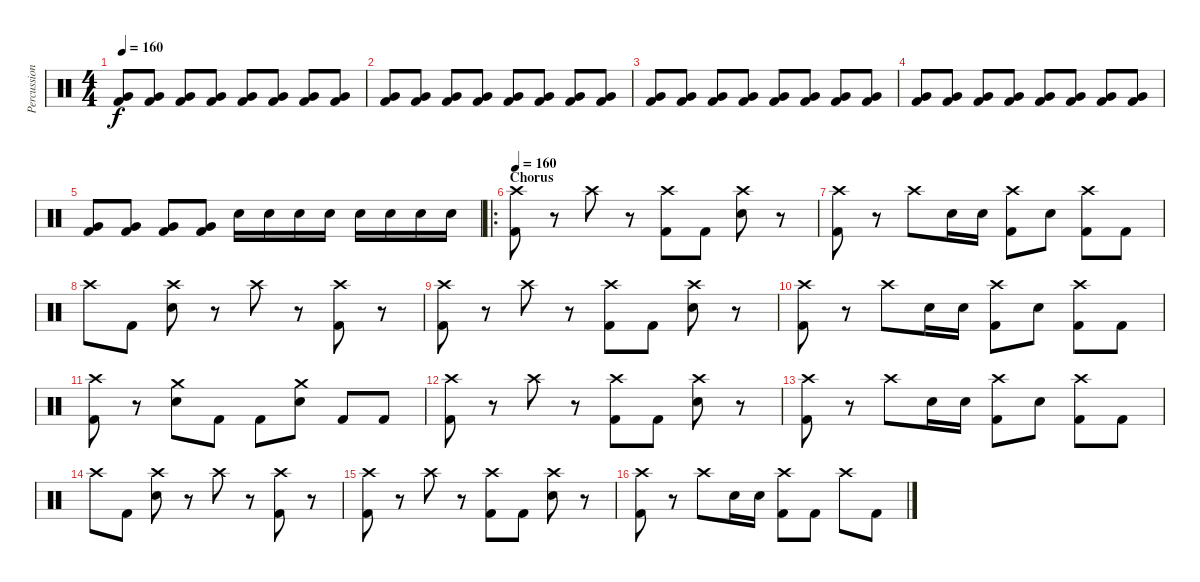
\track ("Percussion" "Percussion") {instrument percussion}
\staff {score}
\articulation defaults
\ts (4 4)
\tempo 160
\clef neutral
\ks c
("Very Low Tom (hit)" "Kick (hit) 2").8{dy f} ("Very Low Tom (hit)" "Kick (hit) 2").8 ("Very Low Tom (hit)" "Kick (hit) 2").8 ("Very Low Tom (hit)" "Kick (hit) 2").8 ("Very Low Tom (hit)" "Kick (hit) 2").8 ("Very Low Tom (hit)" "Kick (hit) 2").8 ("Very Low Tom (hit)" "Kick (hit) 2").8 ("Very Low Tom (hit)" "Kick (hit) 2").8 |
("Very Low Tom (hit)" "Kick (hit) 2").8 ("Very Low Tom (hit)" "Kick (hit) 2").8 ("Very Low Tom (hit)" "Kick (hit) 2").8 ("Very Low Tom (hit)" "Kick (hit) 2").8 ("Very Low Tom (hit)" "Kick (hit) 2").8 ("Very Low Tom (hit)" "Kick (hit) 2").8 ("Very Low Tom (hit)" "Kick (hit) 2").8 ("Very Low Tom (hit)" "Kick (hit) 2").8 |
("Very Low Tom (hit)" "Kick (hit) 2").8 ("Very Low Tom (hit)" "Kick (hit) 2").8 ("Very Low Tom (hit)" "Kick (hit) 2").8 ("Very Low Tom (hit)" "Kick (hit) 2").8 ("Very Low Tom (hit)" "Kick (hit) 2").8 ("Very Low Tom (hit)" "Kick (hit) 2").8 ("Very Low Tom (hit)" "Kick (hit) 2").8 ("Very Low Tom (hit)" "Kick (hit) 2").8 |
("Very Low Tom (hit)" "Kick (hit) 2").8 ("Very Low Tom (hit)" "Kick (hit) 2").8 ("Very Low Tom (hit)" "Kick (hit) 2").8 ("Very Low Tom (hit)" "Kick (hit) 2").8 ("Very Low Tom (hit)" "Kick (hit) 2").8 ("Very Low Tom (hit)" "Kick (hit) 2").8 ("Very Low Tom (hit)" "Kick (hit) 2").8 ("Very Low Tom (hit)" "Kick (hit) 2").8 |
("Very Low Tom (hit)" "Kick (hit) 2").8 ("Very Low Tom (hit)" "Kick (hit) 2").8 ("Very Low Tom (hit)" "Kick (hit) 2").8 ("Very Low Tom (hit)" "Kick (hit) 2").8 "Electric Snare (hit)".16 "Electric Snare (hit)".16 "Electric Snare (hit)".16 "Electric Snare (hit)".16 "Electric Snare (hit)".16 "Electric Snare (hit)".16 "Electric Snare (hit)".16 "Electric Snare (hit)".16 |
\ro
\section ("" "Chorus")
\tempo 160
("Crash high (hit)" "Kick (hit) 2").8 r.8 "Crash high (hit)".8 r.8 ("Crash high (hit)" "Kick (hit) 2").8 "Kick (hit) 2".8 ("Crash high (hit)" "Electric Snare (hit)").8 r.8 |
("Crash high (hit)" "Kick (hit) 2").8 r.8 "Crash high (hit)".8 "Electric Snare (hit)".16 "Electric Snare (hit)".16 ("Crash high (hit)" "Kick (hit) 2").8 "Electric Snare (hit)".8 ("Crash high (hit)" "Kick (hit) 2").8 "Kick (hit) 2".8 |
"Crash high (hit)".8 "Kick (hit) 2".8 ("Crash high (hit)" "Electric Snare (hit)").8 r.8 "Crash high (hit)".8 r.8 ("Crash high (hit)" "Kick (hit) 2").8 r.8 |
("Crash high (hit)" "Kick (hit) 2").8 r.8 "Crash high (hit)".8 r.8 ("Crash high (hit)" "Kick (hit) 2").8 "Kick (hit) 2".8 ("Crash high (hit)" "Electric Snare (hit)").8 r.8 |
("Crash high (hit)" "Kick (hit) 2").8 r.8 "Crash high (hit)".8 "Electric Snare (hit)".16 "Electric Snare (hit)".16 ("Crash high (hit)" "Kick (hit) 2").8 "Electric Snare (hit)".8 ("Crash high (hit)" "Kick (hit) 2").8 "Kick (hit) 2".8 |
("Crash high (hit)" "Kick (hit) 2").8 r.8 ("Crash medium (hit)" "Electric Snare (hit)").8 "Kick (hit) 2".8 "Kick (hit) 2".8 ("Crash medium (hit)" "Electric Snare (hit)").8 "Kick (hit) 2".8 "Kick (hit) 2".8 |
("Crash high (hit)" "Kick (hit) 2").8 r.8 "Crash high (hit)".8 r.8 ("Crash high (hit)" "Kick (hit) 2").8 "Kick (hit) 2".8 ("Crash high (hit)" "Electric Snare (hit)").8 r.8 |
("Crash high (hit)" "Kick (hit) 2").8 r.8 "Crash high (hit)".8 "Electric Snare (hit)".16 "Electric Snare (hit)".16 ("Crash high (hit)" "Kick (hit) 2").8 "Electric Snare (hit)".8 ("Crash high (hit)" "Kick (hit) 2").8 "Kick (hit) 2".8 |
"Crash high (hit)".8 "Kick (hit) 2".8 ("Crash high (hit)" "Electric Snare (hit)").8 r.8 "Crash high (hit)".8 r.8 ("Crash high (hit)" "Kick (hit) 2").8 r.8 |
("Crash high (hit)" "Kick (hit) 2").8 r.8 "Crash high (hit)".8 r.8 ("Crash high (hit)" "Kick (hit) 2").8 "Kick (hit) 2".8 ("Crash high (hit)" "Electric Snare (hit)").8 r.8 |
("Crash high (hit)" "Kick (hit) 2").8 r.8 "Crash high (hit)".8 "Electric Snare (hit)".16 "Electric Snare (hit)".16 ("Crash high (hit)" "Kick (hit) 2").8 "Kick (hit) 2".8 "Crash high (hit)".8 "Kick (hit) 2".8
